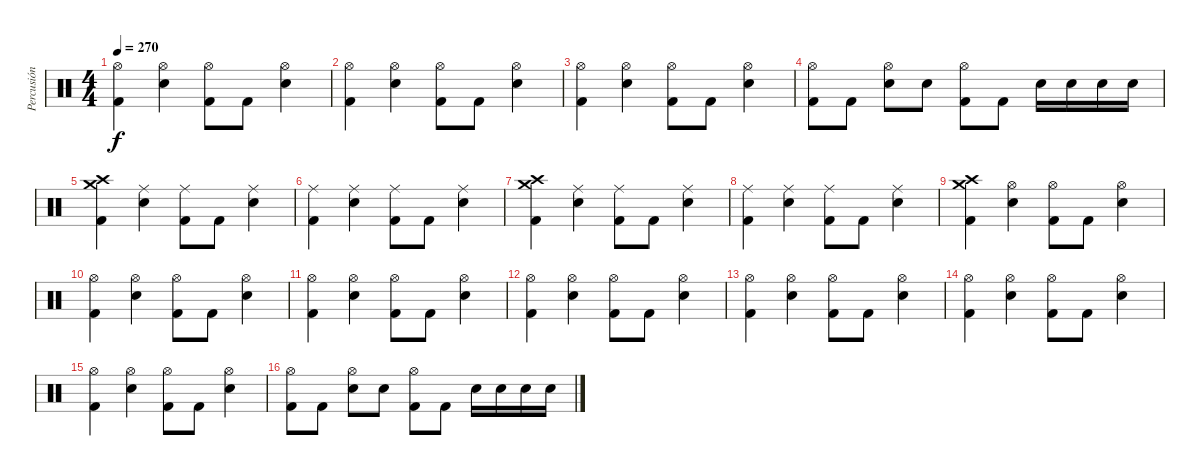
\track ("Percusión" "Percusión") {instrument percussion}
\staff {score}
\articulation defaults
\ts (4 4)
\tempo 270
\clef neutral
\ks c
("Hi-Hat (open)" "Kick (hit) 2").4{dy f} ("Hi-Hat (open)" "Electric Snare (hit)").4 ("Hi-Hat (open)" "Kick (hit) 2").8 "Kick (hit) 2".8 ("Hi-Hat (open)" "Electric Snare (hit)").4 |
("Hi-Hat (open)" "Kick (hit) 2").4 ("Hi-Hat (open)" "Electric Snare (hit)").4 ("Hi-Hat (open)" "Kick (hit) 2").8 "Kick (hit) 2".8 ("Hi-Hat (open)" "Electric Snare (hit)").4 |
("Hi-Hat (open)" "Kick (hit) 2").4 ("Hi-Hat (open)" "Electric Snare (hit)").4 ("Hi-Hat (open)" "Kick (hit) 2").8 "Kick (hit) 2".8 ("Hi-Hat (open)" "Electric Snare (hit)").4 |
("Hi-Hat (open)" "Kick (hit) 2").8 "Kick (hit) 2".8 ("Hi-Hat (open)" "Electric Snare (hit)").8 "Electric Snare (hit)".8 ("Hi-Hat (open)" "Kick (hit) 2").8 "Kick (hit) 2".8 "Electric Snare (hit)".16 "Electric Snare (hit)".16 "Electric Snare (hit)".16 "Electric Snare (hit)".16 |
("Crash high (hit)" "Crash medium (hit)" "Kick (hit) 2").4 ("Ride (middle)" "Electric Snare (hit)").4 ("Ride (middle)" "Kick (hit) 2").8 "Kick (hit) 2".8 ("Ride (middle)" "Electric Snare (hit)").4 |
("Ride (middle)" "Kick (hit) 2").4 ("Ride (middle)" "Electric Snare (hit)").4 ("Ride (middle)" "Kick (hit) 2").8 "Kick (hit) 2".8 ("Ride (middle)" "Electric Snare (hit)").4 |
("Crash high (hit)" "Crash medium (hit)" "Kick (hit) 2").4 ("Ride (middle)" "Electric Snare (hit)").4 ("Ride (middle)" "Kick (hit) 2").8 "Kick (hit) 2".8 ("Ride (middle)" "Electric Snare (hit)").4 |
("Ride (middle)" "Kick (hit) 2").4 ("Ride (middle)" "Electric Snare (hit)").4 ("Ride (middle)" "Kick (hit) 2").8 "Kick (hit) 2".8 ("Ride (middle)" "Electric Snare (hit)").4 |
("Crash high (hit)" "Crash medium (hit)" "Kick (hit) 2").4 ("Hi-Hat (open)" "Electric Snare (hit)").4 ("Hi-Hat (open)" "Kick (hit) 2").8 "Kick (hit) 2".8 ("Hi-Hat (open)" "Electric Snare (hit)").4 |
("Hi-Hat (open)" "Kick (hit) 2").4 ("Hi-Hat (open)" "Electric Snare (hit)").4 ("Hi-Hat (open)" "Kick (hit) 2").8 "Kick (hit) 2".8 ("Hi-Hat (open)" "Electric Snare (hit)").4 |
("Hi-Hat (open)" "Kick (hit) 2").4 ("Hi-Hat (open)" "Electric Snare (hit)").4 ("Hi-Hat (open)" "Kick (hit) 2").8 "Kick (hit) 2".8 ("Hi-Hat (open)" "Electric Snare (hit)").4 |
("Hi-Hat (open)" "Kick (hit) 2").4 ("Hi-Hat (open)" "Electric Snare (hit)").4 ("Hi-Hat (open)" "Kick (hit) 2").8 "Kick (hit) 2".8 ("Hi-Hat (open)" "Electric Snare (hit)").4 |
("Hi-Hat (open)" "Kick (hit) 2").4 ("Hi-Hat (open)" "Electric Snare (hit)").4 ("Hi-Hat (open)" "Kick (hit) 2").8 "Kick (hit) 2".8 ("Hi-Hat (open)" "Electric Snare (hit)").4 |
("Hi-Hat (open)" "Kick (hit) 2").4 ("Hi-Hat (open)" "Electric Snare (hit)").4 ("Hi-Hat (open)" "Kick (hit) 2").8 "Kick (hit) 2".8 ("Hi-Hat (open)" "Electric Snare (hit)").4 |
("Hi-Hat (open)" "Kick (hit) 2").4 ("Hi-Hat (open)" "Electric Snare (hit)").4 ("Hi-Hat (open)" "Kick (hit) 2").8 "Kick (hit) 2".8 ("Hi-Hat (open)" "Electric Snare (hit)").4 |
("Hi-Hat (open)" "Kick (hit) 2").8 "Kick (hit) 2".8 ("Hi-Hat (open)" "Electric Snare (hit)").8 "Electric Snare (hit)".8 ("Hi-Hat (open)" "Kick (hit) 2").8 "Kick (hit) 2".8 "Electric Snare (hit)".16 "Electric Snare (hit)".16 "Electric Snare (hit)".16 "Electric Snare (hit)".16
